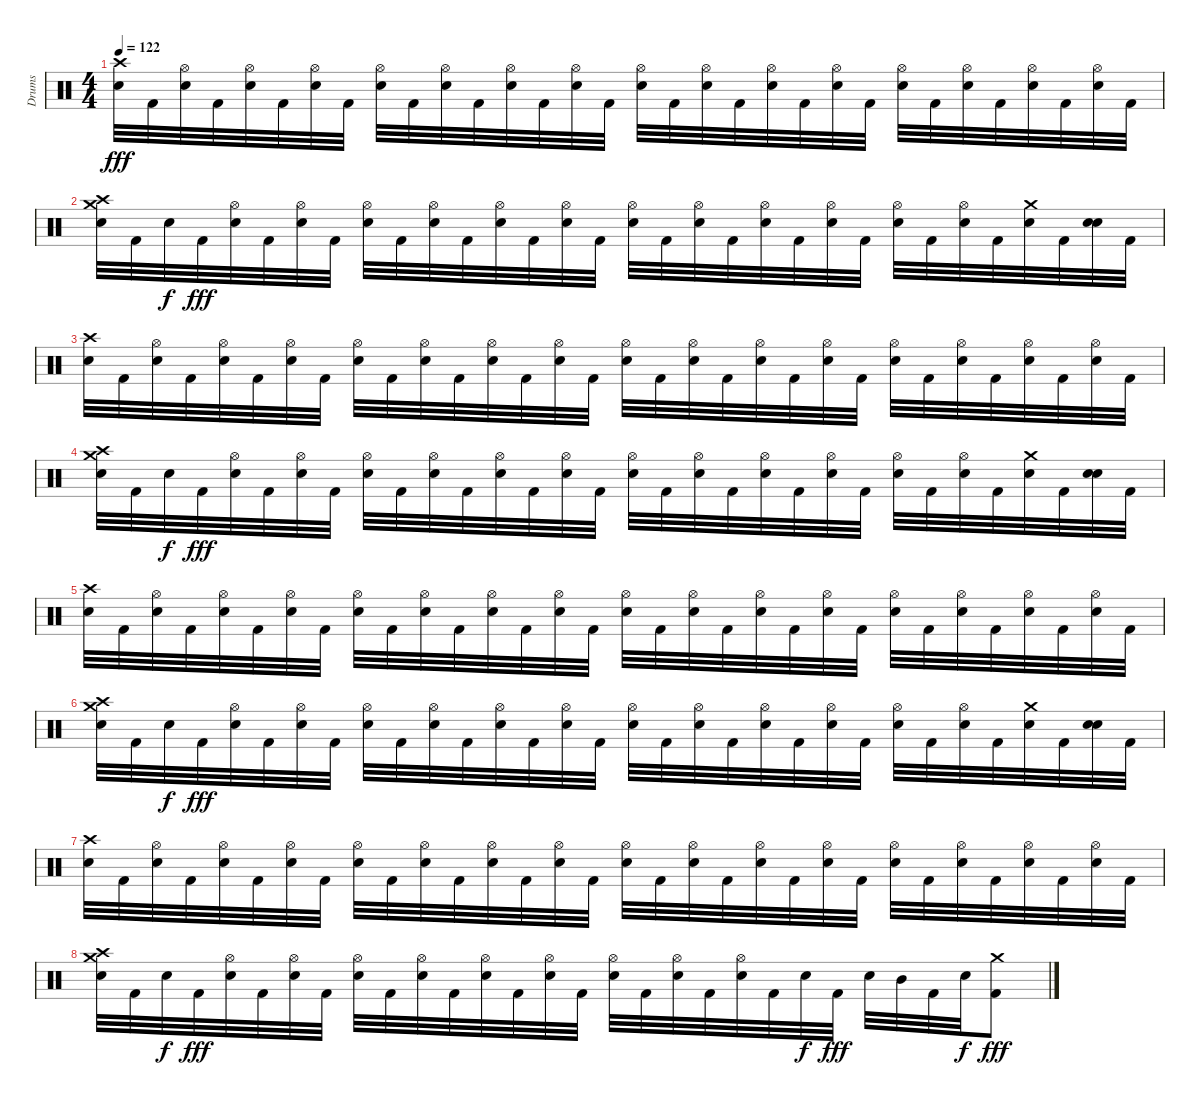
\track ("Drums" "Drums") {instrument percussion}
\staff {score}
\articulation defaults
\ts (4 4)
\tempo 122
\clef neutral
\ks c
("Snare (hit) 2" "Crash high (hit)").32{dy fff} "Kick (hit) 2".32 ("Snare (hit) 2" "Hi-Hat (open)").32 "Kick (hit) 2".32 ("Hi-Hat (open)" "Snare (hit) 2").32 "Kick (hit) 2".32 ("Snare (hit) 2" "Hi-Hat (open)").32 "Kick (hit) 2".32 ("Hi-Hat (open)" "Snare (hit) 2").32 "Kick (hit) 2".32 ("Snare (hit) 2" "Hi-Hat (open)").32 "Kick (hit) 2".32 ("Snare (hit) 2" "Hi-Hat (open)").32 "Kick (hit) 2".32 ("Hi-Hat (open)" "Snare (hit) 2").32 "Kick (hit) 2".32 ("Snare (hit) 2" "Hi-Hat (open)").32 "Kick (hit) 2".32 ("Hi-Hat (open)" "Snare (hit) 2").32 "Kick (hit) 2".32 ("Snare (hit) 2" "Hi-Hat (open)").32 "Kick (hit) 2".32 ("Snare (hit) 2" "Hi-Hat (open)").32 "Kick (hit) 2".32 ("Hi-Hat (open)" "Snare (hit) 2").32 "Kick (hit) 2".32 ("Snare (hit) 2" "Hi-Hat (open)").32 "Kick (hit) 2".32 ("Hi-Hat (open)" "Snare (hit) 2").32 "Kick (hit) 2".32 ("Snare (hit) 2" "Hi-Hat (open)").32 "Kick (hit) 2".32 |
("Snare (hit) 2" "Crash high (hit)" "Crash medium (hit)").32 "Kick (hit) 2".32 "Snare (hit) 2".32{dy f} "Kick (hit) 2".32{dy fff} ("Snare (hit) 2" "Hi-Hat (open)").32 "Kick (hit) 2".32 ("Hi-Hat (open)" "Snare (hit) 2").32 "Kick (hit) 2".32 ("Snare (hit) 2" "Hi-Hat (open)").32 "Kick (hit) 2".32 ("Snare (hit) 2" "Hi-Hat (open)").32 "Kick (hit) 2".32 ("Hi-Hat (open)" "Snare (hit) 2").32 "Kick (hit) 2".32 ("Snare (hit) 2" "Hi-Hat (open)").32 "Kick (hit) 2".32 ("Hi-Hat (open)" "Snare (hit) 2").32 "Kick (hit) 2".32 ("Snare (hit) 2" "Hi-Hat (open)").32 "Kick (hit) 2".32 ("Snare (hit) 2" "Hi-Hat (open)").32 "Kick (hit) 2".32 ("Hi-Hat (open)" "Snare (hit) 2").32 "Kick (hit) 2".32 ("Snare (hit) 2" "Hi-Hat (open)").32 "Kick (hit) 2".32 ("Hi-Hat (open)" "Snare (hit) 2").32 "Kick (hit) 2".32 ("Snare (hit) 2" "Crash medium (hit)").32 "Kick (hit) 2".32 ("Snare (hit) 2" "Snare (hit) 2").32 "Kick (hit) 2".32 |
("Snare (hit) 2" "Crash high (hit)").32 "Kick (hit) 2".32 ("Snare (hit) 2" "Hi-Hat (open)").32 "Kick (hit) 2".32 ("Hi-Hat (open)" "Snare (hit) 2").32 "Kick (hit) 2".32 ("Snare (hit) 2" "Hi-Hat (open)").32 "Kick (hit) 2".32 ("Hi-Hat (open)" "Snare (hit) 2").32 "Kick (hit) 2".32 ("Snare (hit) 2" "Hi-Hat (open)").32 "Kick (hit) 2".32 ("Snare (hit) 2" "Hi-Hat (open)").32 "Kick (hit) 2".32 ("Hi-Hat (open)" "Snare (hit) 2").32 "Kick (hit) 2".32 ("Snare (hit) 2" "Hi-Hat (open)").32 "Kick (hit) 2".32 ("Hi-Hat (open)" "Snare (hit) 2").32 "Kick (hit) 2".32 ("Snare (hit) 2" "Hi-Hat (open)").32 "Kick (hit) 2".32 ("Snare (hit) 2" "Hi-Hat (open)").32 "Kick (hit) 2".32 ("Hi-Hat (open)" "Snare (hit) 2").32 "Kick (hit) 2".32 ("Snare (hit) 2" "Hi-Hat (open)").32 "Kick (hit) 2".32 ("Hi-Hat (open)" "Snare (hit) 2").32 "Kick (hit) 2".32 ("Snare (hit) 2" "Hi-Hat (open)").32 "Kick (hit) 2".32 |
("Snare (hit) 2" "Crash high (hit)" "Crash medium (hit)").32 "Kick (hit) 2".32 "Snare (hit) 2".32{dy f} "Kick (hit) 2".32{dy fff} ("Snare (hit) 2" "Hi-Hat (open)").32 "Kick (hit) 2".32 ("Hi-Hat (open)" "Snare (hit) 2").32 "Kick (hit) 2".32 ("Snare (hit) 2" "Hi-Hat (open)").32 "Kick (hit) 2".32 ("Snare (hit) 2" "Hi-Hat (open)").32 "Kick (hit) 2".32 ("Hi-Hat (open)" "Snare (hit) 2").32 "Kick (hit) 2".32 ("Snare (hit) 2" "Hi-Hat (open)").32 "Kick (hit) 2".32 ("Hi-Hat (open)" "Snare (hit) 2").32 "Kick (hit) 2".32 ("Snare (hit) 2" "Hi-Hat (open)").32 "Kick (hit) 2".32 ("Snare (hit) 2" "Hi-Hat (open)").32 "Kick (hit) 2".32 ("Hi-Hat (open)" "Snare (hit) 2").32 "Kick (hit) 2".32 ("Snare (hit) 2" "Hi-Hat (open)").32 "Kick (hit) 2".32 ("Hi-Hat (open)" "Snare (hit) 2").32 "Kick (hit) 2".32 ("Snare (hit) 2" "Crash medium (hit)").32 "Kick (hit) 2".32 ("Snare (hit) 2" "Snare (hit) 2").32 "Kick (hit) 2".32 |
("Snare (hit) 2" "Crash high (hit)").32 "Kick (hit) 2".32 ("Snare (hit) 2" "Hi-Hat (open)").32 "Kick (hit) 2".32 ("Hi-Hat (open)" "Snare (hit) 2").32 "Kick (hit) 2".32 ("Snare (hit) 2" "Hi-Hat (open)").32 "Kick (hit) 2".32 ("Hi-Hat (open)" "Snare (hit) 2").32 "Kick (hit) 2".32 ("Snare (hit) 2" "Hi-Hat (open)").32 "Kick (hit) 2".32 ("Snare (hit) 2" "Hi-Hat (open)").32 "Kick (hit) 2".32 ("Hi-Hat (open)" "Snare (hit) 2").32 "Kick (hit) 2".32 ("Snare (hit) 2" "Hi-Hat (open)").32 "Kick (hit) 2".32 ("Hi-Hat (open)" "Snare (hit) 2").32 "Kick (hit) 2".32 ("Snare (hit) 2" "Hi-Hat (open)").32 "Kick (hit) 2".32 ("Snare (hit) 2" "Hi-Hat (open)").32 "Kick (hit) 2".32 ("Hi-Hat (open)" "Snare (hit) 2").32 "Kick (hit) 2".32 ("Snare (hit) 2" "Hi-Hat (open)").32 "Kick (hit) 2".32 ("Hi-Hat (open)" "Snare (hit) 2").32 "Kick (hit) 2".32 ("Snare (hit) 2" "Hi-Hat (open)").32 "Kick (hit) 2".32 |
("Snare (hit) 2" "Crash high (hit)" "Crash medium (hit)").32 "Kick (hit) 2".32 "Snare (hit) 2".32{dy f} "Kick (hit) 2".32{dy fff} ("Snare (hit) 2" "Hi-Hat (open)").32 "Kick (hit) 2".32 ("Hi-Hat (open)" "Snare (hit) 2").32 "Kick (hit) 2".32 ("Snare (hit) 2" "Hi-Hat (open)").32 "Kick (hit) 2".32 ("Snare (hit) 2" "Hi-Hat (open)").32 "Kick (hit) 2".32 ("Hi-Hat (open)" "Snare (hit) 2").32 "Kick (hit) 2".32 ("Snare (hit) 2" "Hi-Hat (open)").32 "Kick (hit) 2".32 ("Hi-Hat (open)" "Snare (hit) 2").32 "Kick (hit) 2".32 ("Snare (hit) 2" "Hi-Hat (open)").32 "Kick (hit) 2".32 ("Snare (hit) 2" "Hi-Hat (open)").32 "Kick (hit) 2".32 ("Hi-Hat (open)" "Snare (hit) 2").32 "Kick (hit) 2".32 ("Snare (hit) 2" "Hi-Hat (open)").32 "Kick (hit) 2".32 ("Hi-Hat (open)" "Snare (hit) 2").32 "Kick (hit) 2".32 ("Snare (hit) 2" "Crash medium (hit)").32 "Kick (hit) 2".32 ("Snare (hit) 2" "Snare (hit) 2").32 "Kick (hit) 2".32 |
("Snare (hit) 2" "Crash high (hit)").32 "Kick (hit) 2".32 ("Snare (hit) 2" "Hi-Hat (open)").32 "Kick (hit) 2".32 ("Hi-Hat (open)" "Snare (hit) 2").32 "Kick (hit) 2".32 ("Snare (hit) 2" "Hi-Hat (open)").32 "Kick (hit) 2".32 ("Hi-Hat (open)" "Snare (hit) 2").32 "Kick (hit) 2".32 ("Snare (hit) 2" "Hi-Hat (open)").32 "Kick (hit) 2".32 ("Snare (hit) 2" "Hi-Hat (open)").32 "Kick (hit) 2".32 ("Hi-Hat (open)" "Snare (hit) 2").32 "Kick (hit) 2".32 ("Snare (hit) 2" "Hi-Hat (open)").32 "Kick (hit) 2".32 ("Hi-Hat (open)" "Snare (hit) 2").32 "Kick (hit) 2".32 ("Snare (hit) 2" "Hi-Hat (open)").32 "Kick (hit) 2".32 ("Snare (hit) 2" "Hi-Hat (open)").32 "Kick (hit) 2".32 ("Hi-Hat (open)" "Snare (hit) 2").32 "Kick (hit) 2".32 ("Snare (hit) 2" "Hi-Hat (open)").32 "Kick (hit) 2".32 ("Hi-Hat (open)" "Snare (hit) 2").32 "Kick (hit) 2".32 ("Snare (hit) 2" "Hi-Hat (open)").32 "Kick (hit) 2".32 |
("Snare (hit) 2" "Crash high (hit)" "Crash medium (hit)").32 "Kick (hit) 2".32 "Snare (hit) 2".32{dy f} "Kick (hit) 2".32{dy fff} ("Snare (hit) 2" "Hi-Hat (open)").32 "Kick (hit) 2".32 ("Hi-Hat (open)" "Snare (hit) 2").32 "Kick (hit) 2".32 ("Snare (hit) 2" "Hi-Hat (open)").32 "Kick (hit) 2".32 ("Snare (hit) 2" "Hi-Hat (open)").32 "Kick (hit) 2".32 ("Hi-Hat (open)" "Snare (hit) 2").32 "Kick (hit) 2".32 ("Snare (hit) 2" "Hi-Hat (open)").32 "Kick (hit) 2".32 ("Hi-Hat (open)" "Snare (hit) 2").32 "Kick (hit) 2".32 ("Snare (hit) 2" "Hi-Hat (open)").32 "Kick (hit) 2".32 ("Snare (hit) 2" "Hi-Hat (open)").32 "Kick (hit) 2".32 "Snare (hit) 2".32{dy f} "Kick (hit) 2".32{dy fff} "Snare (hit) 2".32 "Mid Tom (hit)".32 "Kick (hit) 2".32 "Snare (hit) 2".32{dy f} ("Kick (hit) 2" "Crash medium (hit)").8{dy fff}
